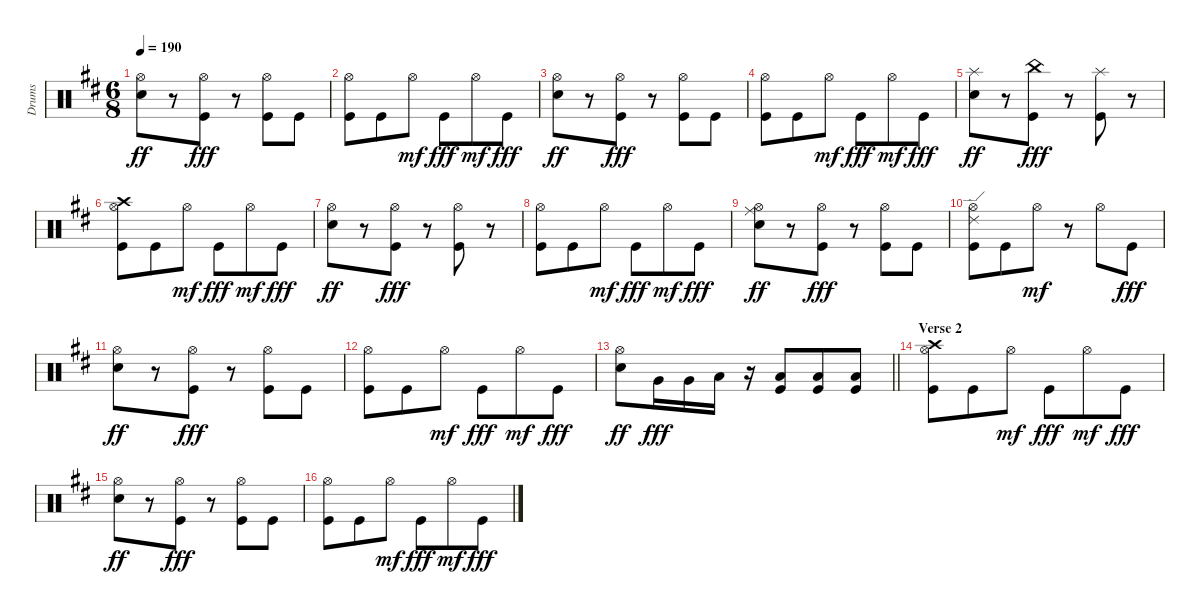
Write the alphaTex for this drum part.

\track ("Drums" "Drums") {instrument percussion}
\staff {score}
\articulation defaults
\ts (6 8)
\tempo 190
\clef neutral
\ks bminor
("Hi-Hat (open)" "Snare (hit) 2").8{dy ff} r.8 ("Hi-Hat (open)" "Kick (hit)").8{dy fff} r.8 ("Hi-Hat (open)" "Kick (hit)").8 "Kick (hit)".8 |
("Hi-Hat (open)" "Kick (hit)").8 "Kick (hit)".8 "Hi-Hat (open)".8{dy mf} "Kick (hit)".8{dy fff} "Hi-Hat (open)".8{dy mf} "Kick (hit)".8{dy fff} |
("Hi-Hat (open)" "Snare (hit) 2").8{dy ff} r.8 ("Hi-Hat (open)" "Kick (hit)").8{dy fff} r.8 ("Hi-Hat (open)" "Kick (hit)").8 "Kick (hit)".8 |
("Hi-Hat (open)" "Kick (hit)").8 "Kick (hit)".8 "Hi-Hat (open)".8{dy mf} "Kick (hit)".8{dy fff} "Hi-Hat (open)".8{dy mf} "Kick (hit)".8{dy fff} |
("Splash (hit)" "Snare (hit) 2").8{dy ff} r.8 ("China (hit)" "Kick (hit)").8{dy fff} r.8 ("Splash (hit)" "Kick (hit)").8 r.8 |
("Crash high (hit)" "Hi-Hat (open)" "Kick (hit)").8 "Kick (hit)".8 "Hi-Hat (open)".8{dy mf} "Kick (hit)".8{dy fff} "Hi-Hat (open)".8{dy mf} "Kick (hit)".8{dy fff} |
("Hi-Hat (open)" "Snare (hit) 2").8{dy ff} r.8 ("Hi-Hat (open)" "Kick (hit)").8{dy fff} r.8 ("Hi-Hat (open)" "Kick (hit)").8 r.8 |
("Hi-Hat (open)" "Kick (hit)").8 "Kick (hit)".8 "Hi-Hat (open)".8{dy mf} "Kick (hit)".8{dy fff} "Hi-Hat (open)".8{dy mf} "Kick (hit)".8{dy fff} |
("Hi-Hat (open)" "Ride (middle)" "Snare (hit) 2").8{dy ff} r.8 ("Hi-Hat (open)" "Kick (hit)").8{dy fff} r.8 ("Hi-Hat (open)" "Kick (hit)").8 "Kick (hit)".8 |
("Hi-Hat (open)" "Ride (edge) 2" "Kick (hit)").8 "Kick (hit)".8 "Hi-Hat (open)".8{dy mf} r.8 "Hi-Hat (open)".8 "Kick (hit)".8{dy fff} |
("Hi-Hat (open)" "Snare (hit) 2").8{dy ff} r.8 ("Hi-Hat (open)" "Kick (hit)").8{dy fff} r.8 ("Hi-Hat (open)" "Kick (hit)").8 "Kick (hit)".8 |
("Hi-Hat (open)" "Kick (hit)").8 "Kick (hit)".8 "Hi-Hat (open)".8{dy mf} "Kick (hit)".8{dy fff} "Hi-Hat (open)".8{dy mf} "Kick (hit)".8{dy fff} |
\barLineRight lightlight
("Hi-Hat (open)" "Snare (hit) 2").8{dy ff} "Very Low Tom (hit)".16{dy fff} "Very Low Tom (hit)".16 "Low Tom (hit)".16 r.16 ("Low Floor Tom (hit)" "Kick (hit)").8 ("Low Floor Tom (hit)" "Kick (hit)").8 ("Low Floor Tom (hit)" "Kick (hit)").8 |
\section ("" "Verse 2")
("Crash high (hit)" "Hi-Hat (open)" "Kick (hit)").8 "Kick (hit)".8 "Hi-Hat (open)".8{dy mf} "Kick (hit)".8{dy fff} "Hi-Hat (open)".8{dy mf} "Kick (hit)".8{dy fff} |
("Hi-Hat (open)" "Snare (hit) 2").8{dy ff} r.8 ("Hi-Hat (open)" "Kick (hit)").8{dy fff} r.8 ("Hi-Hat (open)" "Kick (hit)").8 "Kick (hit)".8 |
("Hi-Hat (open)" "Kick (hit)").8 "Kick (hit)".8 "Hi-Hat (open)".8{dy mf} "Kick (hit)".8{dy fff} "Hi-Hat (open)".8{dy mf} "Kick (hit)".8{dy fff}
